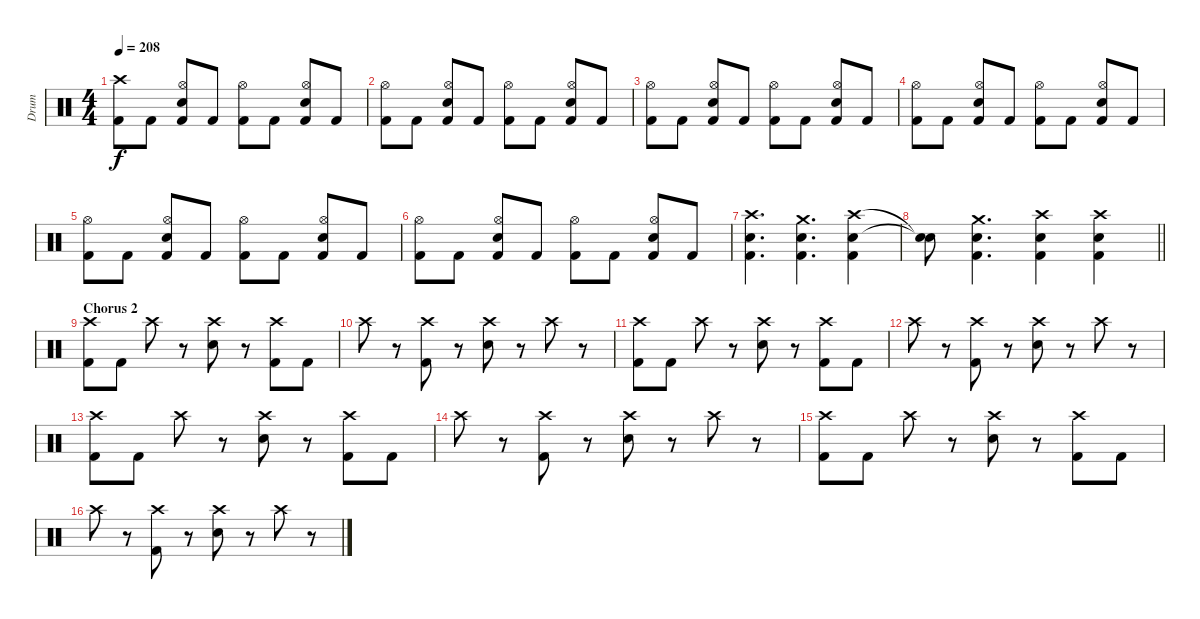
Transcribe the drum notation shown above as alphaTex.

\track ("Drum" "Drum") {instrument percussion}
\staff {score}
\articulation defaults
\ts (4 4)
\tempo 208
\clef neutral
\ks c
("Crash high (hit)" "Kick (hit) 2").8{dy f} "Kick (hit) 2".8 ("Hi-Hat (open)" "Electric Snare (hit)" "Kick (hit) 2").8 "Kick (hit) 2".8 ("Hi-Hat (open)" "Kick (hit) 2").8 "Kick (hit) 2".8 ("Hi-Hat (open)" "Electric Snare (hit)" "Kick (hit) 2").8 "Kick (hit) 2".8 |
("Hi-Hat (open)" "Kick (hit) 2").8 "Kick (hit) 2".8 ("Hi-Hat (open)" "Electric Snare (hit)" "Kick (hit) 2").8 "Kick (hit) 2".8 ("Hi-Hat (open)" "Kick (hit) 2").8 "Kick (hit) 2".8 ("Hi-Hat (open)" "Electric Snare (hit)" "Kick (hit) 2").8 "Kick (hit) 2".8 |
("Hi-Hat (open)" "Kick (hit) 2").8 "Kick (hit) 2".8 ("Hi-Hat (open)" "Electric Snare (hit)" "Kick (hit) 2").8 "Kick (hit) 2".8 ("Hi-Hat (open)" "Kick (hit) 2").8 "Kick (hit) 2".8 ("Hi-Hat (open)" "Electric Snare (hit)" "Kick (hit) 2").8 "Kick (hit) 2".8 |
("Hi-Hat (open)" "Kick (hit) 2").8 "Kick (hit) 2".8 ("Hi-Hat (open)" "Electric Snare (hit)" "Kick (hit) 2").8 "Kick (hit) 2".8 ("Hi-Hat (open)" "Kick (hit) 2").8 "Kick (hit) 2".8 ("Hi-Hat (open)" "Electric Snare (hit)" "Kick (hit) 2").8 "Kick (hit) 2".8 |
("Hi-Hat (open)" "Kick (hit) 2").8 "Kick (hit) 2".8 ("Hi-Hat (open)" "Electric Snare (hit)" "Kick (hit) 2").8 "Kick (hit) 2".8 ("Hi-Hat (open)" "Kick (hit) 2").8 "Kick (hit) 2".8 ("Hi-Hat (open)" "Electric Snare (hit)" "Kick (hit) 2").8 "Kick (hit) 2".8 |
("Hi-Hat (open)" "Kick (hit) 2").8 "Kick (hit) 2".8 ("Hi-Hat (open)" "Electric Snare (hit)" "Kick (hit) 2").8 "Kick (hit) 2".8 ("Hi-Hat (open)" "Kick (hit) 2").8 "Kick (hit) 2".8 ("Hi-Hat (open)" "Electric Snare (hit)" "Kick (hit) 2").8 "Kick (hit) 2".8 |
("Crash high (hit)" "Electric Snare (hit)" "Kick (hit) 2").4{d} ("Crash medium (hit)" "Electric Snare (hit)" "Kick (hit) 2").4{d} ("Crash high (hit)" "Electric Snare (hit)" "Kick (hit) 2").4 |
\barLineRight lightlight
("Snare (hit)"{t} "Snare (hit)"{t}).8 ("Crash medium (hit)" "Electric Snare (hit)" "Kick (hit) 2").4{d} ("Crash high (hit)" "Electric Snare (hit)" "Kick (hit) 2").4 ("Crash high (hit)" "Electric Snare (hit)" "Kick (hit) 2").4 |
\section ("" "Chorus 2")
("Crash high (hit)" "Kick (hit) 2").8 "Kick (hit) 2".8 "Crash high (hit)".8 r.8 ("Crash high (hit)" "Electric Snare (hit)").8 r.8 ("Crash high (hit)" "Kick (hit) 2").8 "Kick (hit) 2".8 |
"Crash high (hit)".8 r.8 ("Crash high (hit)" "Kick (hit) 2").8 r.8 ("Crash high (hit)" "Electric Snare (hit)").8 r.8 "Crash high (hit)".8 r.8 |
("Crash high (hit)" "Kick (hit) 2").8 "Kick (hit) 2".8 "Crash high (hit)".8 r.8 ("Crash high (hit)" "Electric Snare (hit)").8 r.8 ("Crash high (hit)" "Kick (hit) 2").8 "Kick (hit) 2".8 |
"Crash high (hit)".8 r.8 ("Crash high (hit)" "Kick (hit) 2").8 r.8 ("Crash high (hit)" "Electric Snare (hit)").8 r.8 "Crash high (hit)".8 r.8 |
("Crash high (hit)" "Kick (hit) 2").8 "Kick (hit) 2".8 "Crash high (hit)".8 r.8 ("Crash high (hit)" "Electric Snare (hit)").8 r.8 ("Crash high (hit)" "Kick (hit) 2").8 "Kick (hit) 2".8 |
"Crash high (hit)".8 r.8 ("Crash high (hit)" "Kick (hit) 2").8 r.8 ("Crash high (hit)" "Electric Snare (hit)").8 r.8 "Crash high (hit)".8 r.8 |
("Crash high (hit)" "Kick (hit) 2").8 "Kick (hit) 2".8 "Crash high (hit)".8 r.8 ("Crash high (hit)" "Electric Snare (hit)").8 r.8 ("Crash high (hit)" "Kick (hit) 2").8 "Kick (hit) 2".8 |
"Crash high (hit)".8 r.8 ("Crash high (hit)" "Kick (hit) 2").8 r.8 ("Crash high (hit)" "Electric Snare (hit)").8 r.8 "Crash high (hit)".8 r.8
